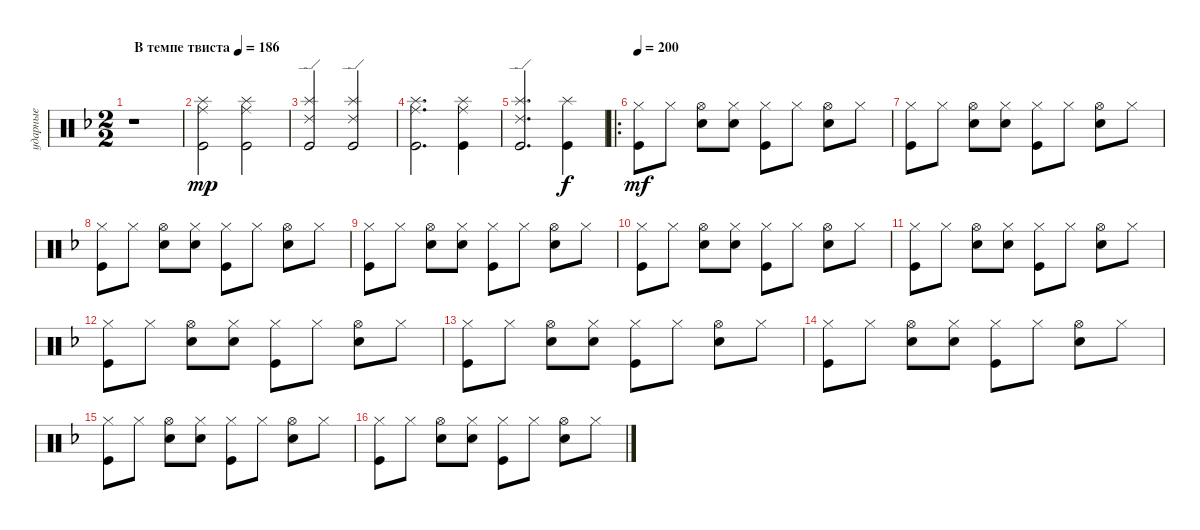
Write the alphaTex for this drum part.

\track ("ударные" "ударные") {instrument percussion}
\staff {score}
\articulation defaults
\ts (2 2)
\tempo (186 "В темпе твиста")
\clef neutral
\ks dminor
r.1{dy mp} |
("Kick (hit)" "Ride (middle)" "Splash (hit)").2 ("Kick (hit)" "Ride (middle)" "Splash (hit)").2 |
("Kick (hit)" "Ride (edge) 2" "Splash (hit)").2 ("Kick (hit)" "Ride (edge) 2" "Splash (hit)").2 |
("Kick (hit)" "Ride (middle)" "Splash (hit)").2{d} ("Kick (hit)" "Ride (middle)" "Splash (hit)").4 |
("Kick (hit)" "Ride (edge) 2" "Splash (hit)").2{d} ("Kick (hit)" "Splash (hit)").4{dy f} |
\ro
\tempo 200
("Kick (hit)" "Hi-Hat (closed)").8{dy mf} "Hi-Hat (closed)".8 ("Snare (hit) 2" "Hi-Hat (open)").8 ("Snare (hit) 2" "Hi-Hat (closed)").8 ("Kick (hit)" "Hi-Hat (closed)").8 "Hi-Hat (closed)".8 ("Snare (hit) 2" "Hi-Hat (open)").8 "Hi-Hat (closed)".8 |
("Kick (hit)" "Hi-Hat (closed)").8 "Hi-Hat (closed)".8 ("Snare (hit) 2" "Hi-Hat (open)").8 ("Snare (hit) 2" "Hi-Hat (closed)").8 ("Kick (hit)" "Hi-Hat (closed)").8 "Hi-Hat (closed)".8 ("Snare (hit) 2" "Hi-Hat (open)").8 "Hi-Hat (closed)".8 |
("Kick (hit)" "Hi-Hat (closed)").8 "Hi-Hat (closed)".8 ("Snare (hit) 2" "Hi-Hat (open)").8 ("Snare (hit) 2" "Hi-Hat (closed)").8 ("Kick (hit)" "Hi-Hat (closed)").8 "Hi-Hat (closed)".8 ("Snare (hit) 2" "Hi-Hat (open)").8 "Hi-Hat (closed)".8 |
("Kick (hit)" "Hi-Hat (closed)").8 "Hi-Hat (closed)".8 ("Snare (hit) 2" "Hi-Hat (open)").8 ("Snare (hit) 2" "Hi-Hat (closed)").8 ("Kick (hit)" "Hi-Hat (closed)").8 "Hi-Hat (closed)".8 ("Snare (hit) 2" "Hi-Hat (open)").8 "Hi-Hat (closed)".8 |
("Kick (hit)" "Hi-Hat (closed)").8 "Hi-Hat (closed)".8 ("Snare (hit) 2" "Hi-Hat (open)").8 ("Snare (hit) 2" "Hi-Hat (closed)").8 ("Kick (hit)" "Hi-Hat (closed)").8 "Hi-Hat (closed)".8 ("Snare (hit) 2" "Hi-Hat (open)").8 "Hi-Hat (closed)".8 |
("Kick (hit)" "Hi-Hat (closed)").8 "Hi-Hat (closed)".8 ("Snare (hit) 2" "Hi-Hat (open)").8 ("Snare (hit) 2" "Hi-Hat (closed)").8 ("Kick (hit)" "Hi-Hat (closed)").8 "Hi-Hat (closed)".8 ("Snare (hit) 2" "Hi-Hat (open)").8 "Hi-Hat (closed)".8 |
("Kick (hit)" "Hi-Hat (closed)").8 "Hi-Hat (closed)".8 ("Snare (hit) 2" "Hi-Hat (open)").8 ("Snare (hit) 2" "Hi-Hat (closed)").8 ("Kick (hit)" "Hi-Hat (closed)").8 "Hi-Hat (closed)".8 ("Snare (hit) 2" "Hi-Hat (open)").8 "Hi-Hat (closed)".8 |
("Kick (hit)" "Hi-Hat (closed)").8 "Hi-Hat (closed)".8 ("Snare (hit) 2" "Hi-Hat (open)").8 ("Snare (hit) 2" "Hi-Hat (closed)").8 ("Kick (hit)" "Hi-Hat (closed)").8 "Hi-Hat (closed)".8 ("Snare (hit) 2" "Hi-Hat (open)").8 "Hi-Hat (closed)".8 |
("Kick (hit)" "Hi-Hat (closed)").8 "Hi-Hat (closed)".8 ("Snare (hit) 2" "Hi-Hat (open)").8 ("Snare (hit) 2" "Hi-Hat (closed)").8 ("Kick (hit)" "Hi-Hat (closed)").8 "Hi-Hat (closed)".8 ("Snare (hit) 2" "Hi-Hat (open)").8 "Hi-Hat (closed)".8 |
("Kick (hit)" "Hi-Hat (closed)").8 "Hi-Hat (closed)".8 ("Snare (hit) 2" "Hi-Hat (open)").8 ("Snare (hit) 2" "Hi-Hat (closed)").8 ("Kick (hit)" "Hi-Hat (closed)").8 "Hi-Hat (closed)".8 ("Snare (hit) 2" "Hi-Hat (open)").8 "Hi-Hat (closed)".8 |
("Kick (hit)" "Hi-Hat (closed)").8 "Hi-Hat (closed)".8 ("Snare (hit) 2" "Hi-Hat (open)").8 ("Snare (hit) 2" "Hi-Hat (closed)").8 ("Kick (hit)" "Hi-Hat (closed)").8 "Hi-Hat (closed)".8 ("Snare (hit) 2" "Hi-Hat (open)").8 "Hi-Hat (closed)".8
